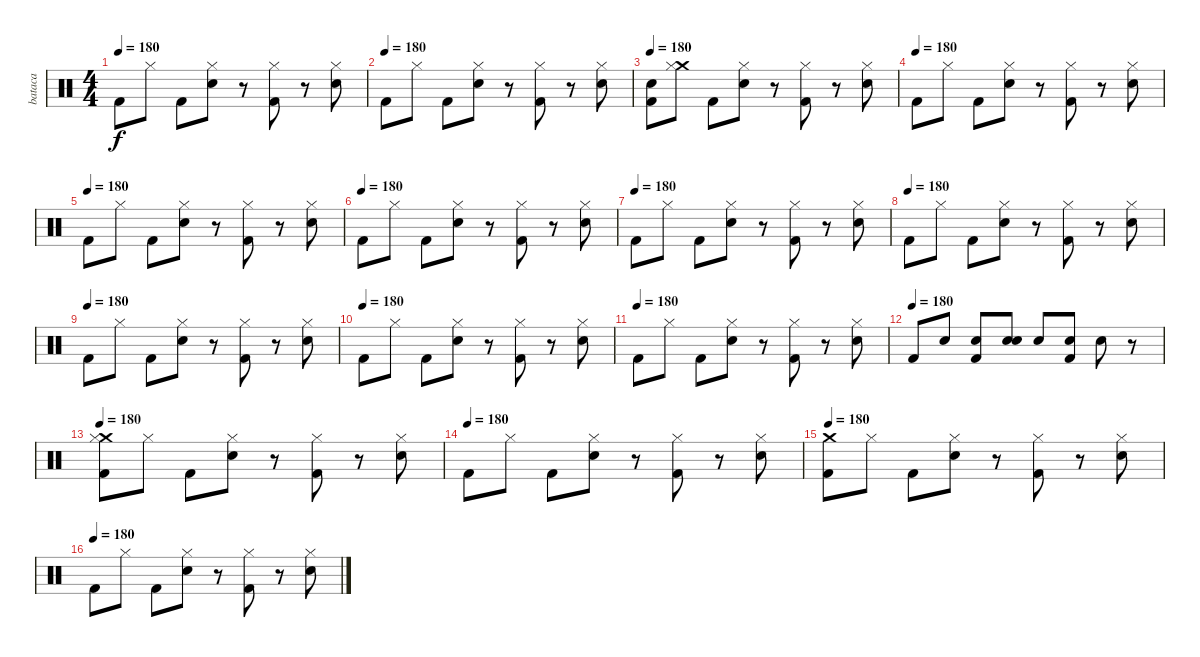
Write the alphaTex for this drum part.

\track ("bataca" "bataca") {instrument percussion}
\staff {score}
\articulation defaults
\ts (4 4)
\tempo 180
\clef neutral
\ks c "Kick (hit) 2".8{dy f} "Hi-Hat (closed)".8 "Kick (hit) 2".8
("Hi-Hat (closed)" "Snare (hit) 2").8 r.8 ("Hi-Hat (closed)" "Kick (hit) 2").8 r.8 ("Hi-Hat (closed)" "Snare (hit) 2").8 |
\tempo (180)
"Kick (hit) 2".8 "Hi-Hat (closed)".8 "Kick (hit) 2".8 ("Hi-Hat (closed)" "Snare (hit) 2").8 r.8 ("Hi-Hat (closed)" "Kick (hit) 2").8 r.8 ("Hi-Hat (closed)" "Snare (hit) 2").8 |
\tempo 180
("Snare (hit) 2" "Kick (hit) 2").8 ("Crash medium (hit)" "Hi-Hat (closed)").8 "Kick (hit) 2".8 ("Hi-Hat (closed)" "Snare (hit) 2").8 r.8 ("Hi-Hat (closed)" "Kick (hit) 2").8 r.8 ("Hi-Hat (closed)" "Snare (hit) 2").8 |
\tempo (180)
"Kick (hit) 2".8 "Hi-Hat (closed)".8 "Kick (hit) 2".8 ("Hi-Hat (closed)" "Snare (hit) 2").8 r.8 ("Hi-Hat (closed)" "Kick (hit) 2").8 r.8 ("Hi-Hat (closed)" "Snare (hit) 2").8 |
\tempo (180)
"Kick (hit) 2".8 "Hi-Hat (closed)".8 "Kick (hit) 2".8 ("Hi-Hat (closed)" "Snare (hit) 2").8 r.8 ("Hi-Hat (closed)" "Kick (hit) 2").8 r.8 ("Hi-Hat (closed)" "Snare (hit) 2").8 |
\tempo (180)
"Kick (hit) 2".8 "Hi-Hat (closed)".8 "Kick (hit) 2".8 ("Hi-Hat (closed)" "Snare (hit) 2").8 r.8 ("Hi-Hat (closed)" "Kick (hit) 2").8 r.8 ("Hi-Hat (closed)" "Snare (hit) 2").8 |
\tempo (180)
"Kick (hit) 2".8 "Hi-Hat (closed)".8 "Kick (hit) 2".8 ("Hi-Hat (closed)" "Snare (hit) 2").8 r.8 ("Hi-Hat (closed)" "Kick (hit) 2").8 r.8 ("Hi-Hat (closed)" "Snare (hit) 2").8 |
\tempo (180)
"Kick (hit) 2".8 "Hi-Hat (closed)".8 "Kick (hit) 2".8 ("Hi-Hat (closed)" "Snare (hit) 2").8 r.8 ("Hi-Hat (closed)" "Kick (hit) 2").8 r.8 ("Hi-Hat (closed)" "Snare (hit) 2").8 |
\tempo (180)
"Kick (hit) 2".8 "Hi-Hat (closed)".8 "Kick (hit) 2".8 ("Hi-Hat (closed)" "Snare (hit) 2").8 r.8 ("Hi-Hat (closed)" "Kick (hit) 2").8 r.8 ("Hi-Hat (closed)" "Snare (hit) 2").8 |
\tempo (180)
"Kick (hit) 2".8 "Hi-Hat (closed)".8 "Kick (hit) 2".8 ("Hi-Hat (closed)" "Snare (hit) 2").8 r.8 ("Hi-Hat (closed)" "Kick (hit) 2").8 r.8 ("Hi-Hat (closed)" "Snare (hit) 2").8 |
\tempo (180)
"Kick (hit) 2".8 "Hi-Hat (closed)".8 "Kick (hit) 2".8 ("Hi-Hat (closed)" "Snare (hit) 2").8 r.8 ("Hi-Hat (closed)" "Kick (hit) 2").8 r.8 ("Hi-Hat (closed)" "Snare (hit) 2").8 |
\tempo (180)
"Kick (hit) 2".8 "Snare (hit) 2".8 ("Snare (hit) 2" "Kick (hit) 2").8 ("Snare (hit) 2" "Snare (hit) 2").8 "Snare (hit) 2".8 ("Snare (hit) 2" "Kick (hit) 2").8 "Snare (hit) 2".8 r.8 |
\tempo 180
("Crash medium (hit)" "Hi-Hat (closed)" "Kick (hit) 2").8 "Hi-Hat (closed)".8 "Kick (hit) 2".8 ("Hi-Hat (closed)" "Snare (hit) 2").8 r.8 ("Hi-Hat (closed)" "Kick (hit) 2").8 r.8 ("Hi-Hat (closed)" "Snare (hit) 2").8 |
\tempo (180)
"Kick (hit) 2".8 "Hi-Hat (closed)".8 "Kick (hit) 2".8 ("Hi-Hat (closed)" "Snare (hit) 2").8 r.8 ("Hi-Hat (closed)" "Kick (hit) 2").8 r.8 ("Hi-Hat (closed)" "Snare (hit) 2").8 |
\tempo 180
("Crash medium (hit)" "Kick (hit) 2").8 "Hi-Hat (closed)".8 "Kick (hit) 2".8 ("Hi-Hat (closed)" "Snare (hit) 2").8 r.8 ("Hi-Hat (closed)" "Kick (hit) 2").8 r.8 ("Hi-Hat (closed)" "Snare (hit) 2").8 |
\tempo (180)
"Kick (hit) 2".8 "Hi-Hat (closed)".8 "Kick (hit) 2".8 ("Hi-Hat (closed)" "Snare (hit) 2").8 r.8 ("Hi-Hat (closed)" "Kick (hit) 2").8 r.8 ("Hi-Hat (closed)" "Snare (hit) 2").8
